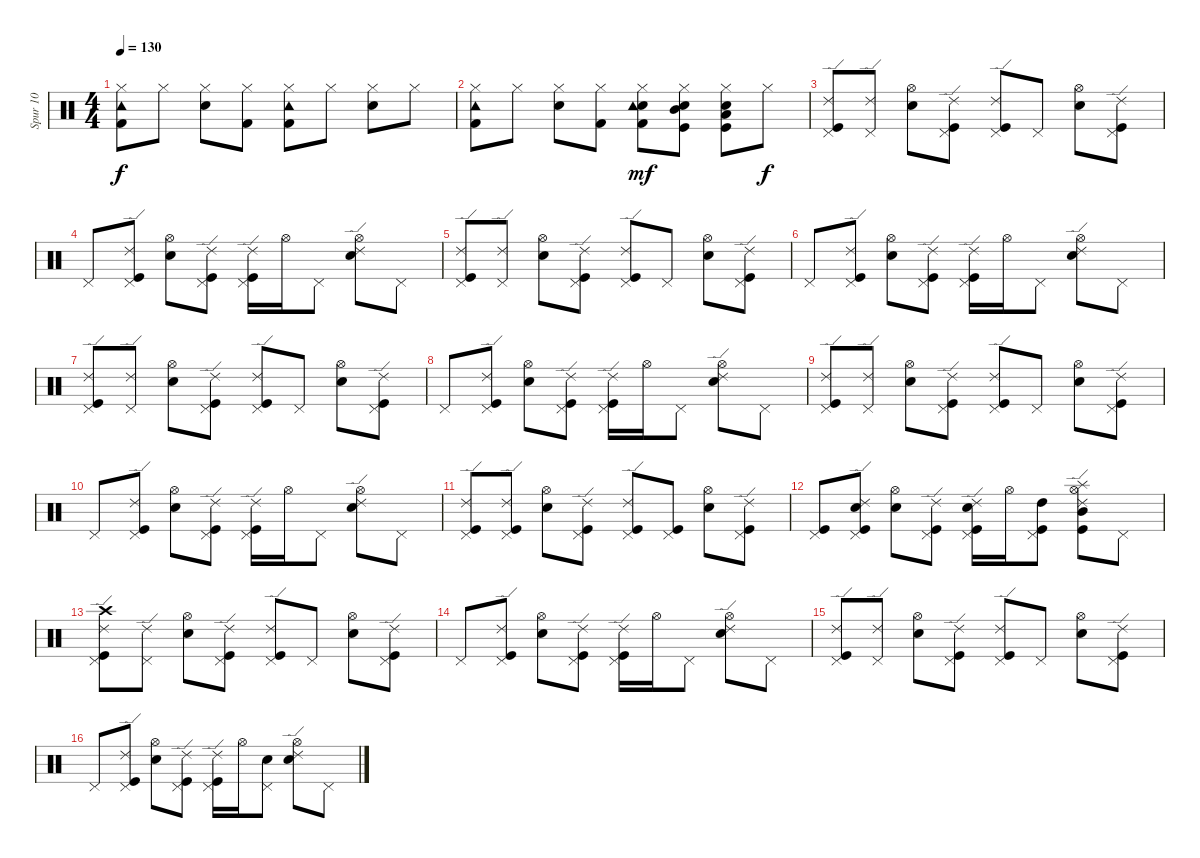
\track ("Spur 10" "Spur 10") {instrument percussion}
\staff {score}
\articulation defaults
\ts (4 4)
\tempo 130
\clef neutral
\ks c
("Hi-Hat (closed)" "Tambourine (hit)" "Kick (hit) 2").8{dy f} "Hi-Hat (closed)".8 ("Hi-Hat (closed)" "Electric Snare (hit)").8 ("Hi-Hat (closed)" "Kick (hit) 2").8 ("Tambourine (hit)" "Hi-Hat (closed)" "Kick (hit) 2").8 "Hi-Hat (closed)".8 ("Hi-Hat (closed)" "Electric Snare (hit)").8 "Hi-Hat (closed)".8 |
("Hi-Hat (closed)" "Tambourine (hit)" "Kick (hit) 2").8 "Hi-Hat (closed)".8 ("Hi-Hat (closed)" "Electric Snare (hit)").8 ("Hi-Hat (closed)" "Kick (hit) 2").8 ("Electric Snare (hit)" "Tambourine (hit)" "Hi-Hat (closed)" "Kick (hit) 2").8{dy mf} ("Mid Tom (hit)" "Kick (hit)" "Snare (hit) 2" "Hi-Hat (closed)").8 ("Low Tom (hit)" "Kick (hit)" "Hi-Hat (closed)" "Electric Snare (hit)").8 "Hi-Hat (closed)".8{dy f} |
("Kick (hit)" "Pedal Hi-Hat (hit)" "Ride (edge) 2").8 ("Pedal Hi-Hat (hit)" "Ride (edge) 2").8 ("Electric Snare (hit)" "Hi-Hat (open)").8 ("Kick (hit)" "Pedal Hi-Hat (hit)" "Ride (edge) 2").8 ("Kick (hit)" "Pedal Hi-Hat (hit)" "Ride (edge) 2").8 "Pedal Hi-Hat (hit)".8 ("Electric Snare (hit)" "Hi-Hat (open)").8 ("Kick (hit)" "Pedal Hi-Hat (hit)" "Ride (edge) 2").8 |
"Pedal Hi-Hat (hit)".8 ("Kick (hit)" "Pedal Hi-Hat (hit)" "Ride (edge) 2").8 ("Electric Snare (hit)" "Hi-Hat (open)").8 ("Kick (hit)" "Pedal Hi-Hat (hit)" "Ride (edge) 2").8 ("Kick (hit)" "Pedal Hi-Hat (hit)" "Ride (edge) 2").16 "Hi-Hat (open)".16 "Pedal Hi-Hat (hit)".8 ("Electric Snare (hit)" "Hi-Hat (open)" "Ride (edge) 2").8 "Pedal Hi-Hat (hit)".8 |
("Kick (hit)" "Pedal Hi-Hat (hit)" "Ride (edge) 2").8 ("Pedal Hi-Hat (hit)" "Ride (edge) 2").8 ("Electric Snare (hit)" "Hi-Hat (open)").8 ("Kick (hit)" "Pedal Hi-Hat (hit)" "Ride (edge) 2").8 ("Kick (hit)" "Pedal Hi-Hat (hit)" "Ride (edge) 2").8 "Pedal Hi-Hat (hit)".8 ("Electric Snare (hit)" "Hi-Hat (open)").8 ("Kick (hit)" "Pedal Hi-Hat (hit)" "Ride (edge) 2").8 |
"Pedal Hi-Hat (hit)".8 ("Kick (hit)" "Pedal Hi-Hat (hit)" "Ride (edge) 2").8 ("Electric Snare (hit)" "Hi-Hat (open)").8 ("Kick (hit)" "Pedal Hi-Hat (hit)" "Ride (edge) 2").8 ("Kick (hit)" "Pedal Hi-Hat (hit)" "Ride (edge) 2").16 "Hi-Hat (open)".16 "Pedal Hi-Hat (hit)".8 ("Electric Snare (hit)" "Hi-Hat (open)" "Ride (edge) 2").8 "Pedal Hi-Hat (hit)".8 |
("Kick (hit)" "Pedal Hi-Hat (hit)" "Ride (edge) 2").8 ("Pedal Hi-Hat (hit)" "Ride (edge) 2").8 ("Electric Snare (hit)" "Hi-Hat (open)").8 ("Kick (hit)" "Pedal Hi-Hat (hit)" "Ride (edge) 2").8 ("Kick (hit)" "Pedal Hi-Hat (hit)" "Ride (edge) 2").8 "Pedal Hi-Hat (hit)".8 ("Electric Snare (hit)" "Hi-Hat (open)").8 ("Kick (hit)" "Pedal Hi-Hat (hit)" "Ride (edge) 2").8 |
"Pedal Hi-Hat (hit)".8 ("Kick (hit)" "Pedal Hi-Hat (hit)" "Ride (edge) 2").8 ("Electric Snare (hit)" "Hi-Hat (open)").8 ("Kick (hit)" "Pedal Hi-Hat (hit)" "Ride (edge) 2").8 ("Kick (hit)" "Pedal Hi-Hat (hit)" "Ride (edge) 2").16 "Hi-Hat (open)".16 "Pedal Hi-Hat (hit)".8 ("Electric Snare (hit)" "Hi-Hat (open)" "Ride (edge) 2").8 "Pedal Hi-Hat (hit)".8 |
("Kick (hit)" "Pedal Hi-Hat (hit)" "Ride (edge) 2").8 ("Pedal Hi-Hat (hit)" "Ride (edge) 2").8 ("Electric Snare (hit)" "Hi-Hat (open)").8 ("Kick (hit)" "Pedal Hi-Hat (hit)" "Ride (edge) 2").8 ("Kick (hit)" "Pedal Hi-Hat (hit)" "Ride (edge) 2").8 "Pedal Hi-Hat (hit)".8 ("Electric Snare (hit)" "Hi-Hat (open)").8 ("Kick (hit)" "Pedal Hi-Hat (hit)" "Ride (edge) 2").8 |
"Pedal Hi-Hat (hit)".8 ("Kick (hit)" "Pedal Hi-Hat (hit)" "Ride (edge) 2").8 ("Electric Snare (hit)" "Hi-Hat (open)").8 ("Kick (hit)" "Pedal Hi-Hat (hit)" "Ride (edge) 2").8 ("Kick (hit)" "Pedal Hi-Hat (hit)" "Ride (edge) 2").16 "Hi-Hat (open)".16 "Pedal Hi-Hat (hit)".8 ("Electric Snare (hit)" "Hi-Hat (open)" "Ride (edge) 2").8 "Pedal Hi-Hat (hit)".8 |
("Kick (hit)" "Pedal Hi-Hat (hit)" "Ride (edge) 2").8 ("Kick (hit)" "Pedal Hi-Hat (hit)" "Ride (edge) 2").8 ("Electric Snare (hit)" "Hi-Hat (open)").8 ("Kick (hit)" "Pedal Hi-Hat (hit)" "Ride (edge) 2").8 ("Kick (hit)" "Pedal Hi-Hat (hit)" "Ride (edge) 2").8 ("Kick (hit)" "Pedal Hi-Hat (hit)").8 ("Electric Snare (hit)" "Hi-Hat (open)").8 ("Kick (hit)" "Pedal Hi-Hat (hit)" "Ride (edge) 2").8 |
("Kick (hit)" "Pedal Hi-Hat (hit)").8 ("Electric Snare (hit)" "Kick (hit)" "Pedal Hi-Hat (hit)" "Ride (edge) 2").8 ("Electric Snare (hit)" "Hi-Hat (open)").8 ("Kick (hit)" "Pedal Hi-Hat (hit)" "Ride (edge) 2").8 ("Kick (hit)" "Electric Snare (hit)" "Pedal Hi-Hat (hit)" "Ride (edge) 2").16 "Hi-Hat (open)".16 ("Kick (hit)" "High Tom (hit)" "Pedal Hi-Hat (hit)").8 ("Kick (hit)" "Mid Tom (hit)" "Splash (hit)" "Hi-Hat (open)" "Ride (edge) 2").8 "Pedal Hi-Hat (hit)".8 |
("Crash high (hit)" "Kick (hit)" "Pedal Hi-Hat (hit)" "Ride (edge) 2").8 ("Pedal Hi-Hat (hit)" "Ride (edge) 2").8 ("Electric Snare (hit)" "Hi-Hat (open)").8 ("Kick (hit)" "Pedal Hi-Hat (hit)" "Ride (edge) 2").8 ("Kick (hit)" "Pedal Hi-Hat (hit)" "Ride (edge) 2").8 "Pedal Hi-Hat (hit)".8 ("Electric Snare (hit)" "Hi-Hat (open)").8 ("Kick (hit)" "Pedal Hi-Hat (hit)" "Ride (edge) 2").8 |
"Pedal Hi-Hat (hit)".8 ("Kick (hit)" "Pedal Hi-Hat (hit)" "Ride (edge) 2").8 ("Electric Snare (hit)" "Hi-Hat (open)").8 ("Kick (hit)" "Pedal Hi-Hat (hit)" "Ride (edge) 2").8 ("Kick (hit)" "Pedal Hi-Hat (hit)" "Ride (edge) 2").16 "Hi-Hat (open)".16 "Pedal Hi-Hat (hit)".8 ("Electric Snare (hit)" "Hi-Hat (open)" "Ride (edge) 2").8 "Pedal Hi-Hat (hit)".8 |
("Kick (hit)" "Pedal Hi-Hat (hit)" "Ride (edge) 2").8 ("Pedal Hi-Hat (hit)" "Ride (edge) 2").8 ("Electric Snare (hit)" "Hi-Hat (open)").8 ("Kick (hit)" "Pedal Hi-Hat (hit)" "Ride (edge) 2").8 ("Kick (hit)" "Pedal Hi-Hat (hit)" "Ride (edge) 2").8 "Pedal Hi-Hat (hit)".8 ("Electric Snare (hit)" "Hi-Hat (open)").8 ("Kick (hit)" "Pedal Hi-Hat (hit)" "Ride (edge) 2").8 |
"Pedal Hi-Hat (hit)".8 ("Kick (hit)" "Pedal Hi-Hat (hit)" "Ride (edge) 2").8 ("Electric Snare (hit)" "Hi-Hat (open)").8 ("Kick (hit)" "Pedal Hi-Hat (hit)" "Ride (edge) 2").8 ("Kick (hit)" "Pedal Hi-Hat (hit)" "Ride (edge) 2").16 "Hi-Hat (open)".16 ("Electric Snare (hit)" "Pedal Hi-Hat (hit)").8 ("Electric Snare (hit)" "Hi-Hat (open)" "Ride (edge) 2").8 "Pedal Hi-Hat (hit)".8
